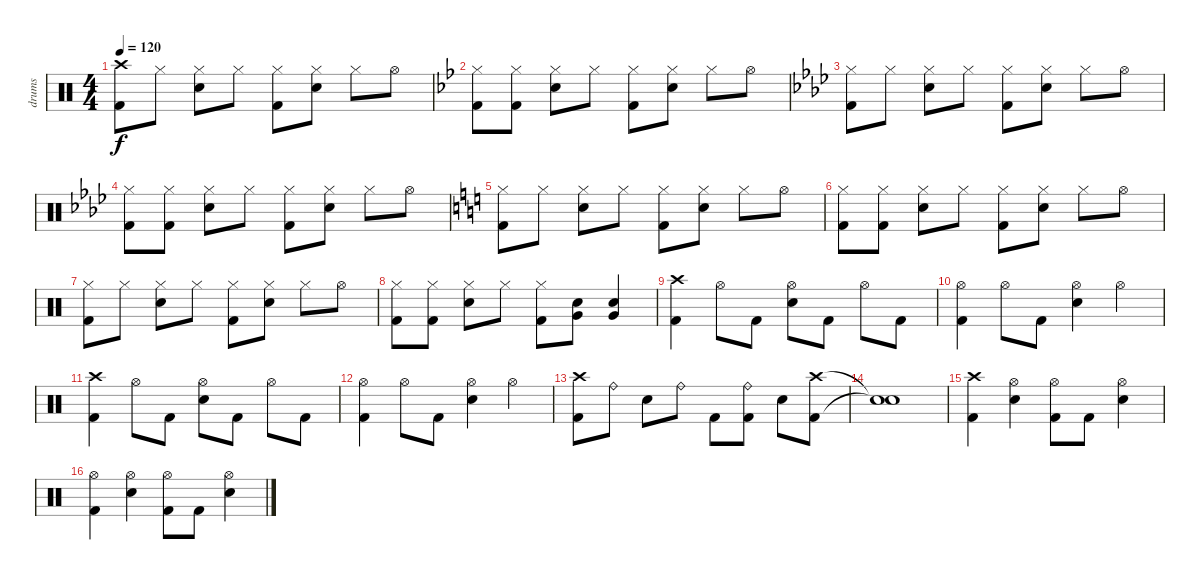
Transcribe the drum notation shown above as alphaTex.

\track ("drums" "drums") {instrument percussion}
\staff {score}
\articulation defaults
\ts (4 4)
\tempo 120
\clef neutral
\ks c
("Crash high (hit)" "Kick (hit) 2").8{dy f} "Hi-Hat (closed)".8 ("Hi-Hat (closed)" "Snare (hit) 2").8 "Hi-Hat (closed)".8 ("Hi-Hat (closed)" "Kick (hit) 2").8 ("Hi-Hat (closed)" "Snare (hit) 2").8 "Hi-Hat (closed)".8 "Hi-Hat (open)".8 |
\ks bb
("Hi-Hat (closed)" "Kick (hit) 2").8 ("Hi-Hat (closed)" "Kick (hit) 2").8 ("Hi-Hat (closed)" "Snare (hit) 2").8 "Hi-Hat (closed)".8 ("Hi-Hat (closed)" "Kick (hit) 2").8 ("Hi-Hat (closed)" "Snare (hit) 2").8 "Hi-Hat (closed)".8 "Hi-Hat (open)".8 |
\ks ab
("Hi-Hat (closed)" "Kick (hit) 2").8 "Hi-Hat (closed)".8 ("Hi-Hat (closed)" "Snare (hit) 2").8 "Hi-Hat (closed)".8 ("Hi-Hat (closed)" "Kick (hit) 2").8 ("Hi-Hat (closed)" "Snare (hit) 2").8 "Hi-Hat (closed)".8 "Hi-Hat (open)".8 |
("Hi-Hat (closed)" "Kick (hit) 2").8 ("Hi-Hat (closed)" "Kick (hit) 2").8 ("Hi-Hat (closed)" "Snare (hit) 2").8 "Hi-Hat (closed)".8 ("Hi-Hat (closed)" "Kick (hit) 2").8 ("Hi-Hat (closed)" "Snare (hit) 2").8 "Hi-Hat (closed)".8 "Hi-Hat (open)".8 |
\ks c
("Hi-Hat (closed)" "Kick (hit) 2").8 "Hi-Hat (closed)".8 ("Hi-Hat (closed)" "Snare (hit) 2").8 "Hi-Hat (closed)".8 ("Hi-Hat (closed)" "Kick (hit) 2").8 ("Hi-Hat (closed)" "Snare (hit) 2").8 "Hi-Hat (closed)".8 "Hi-Hat (open)".8 |
("Hi-Hat (closed)" "Kick (hit) 2").8 ("Hi-Hat (closed)" "Kick (hit) 2").8 ("Hi-Hat (closed)" "Snare (hit) 2").8 "Hi-Hat (closed)".8 ("Hi-Hat (closed)" "Kick (hit) 2").8 ("Hi-Hat (closed)" "Snare (hit) 2").8 "Hi-Hat (closed)".8 "Hi-Hat (open)".8 |
("Hi-Hat (closed)" "Kick (hit) 2").8 "Hi-Hat (closed)".8 ("Hi-Hat (closed)" "Snare (hit) 2").8 "Hi-Hat (closed)".8 ("Hi-Hat (closed)" "Kick (hit) 2").8 ("Hi-Hat (closed)" "Snare (hit) 2").8 "Hi-Hat (closed)".8 "Hi-Hat (open)".8 |
("Hi-Hat (closed)" "Kick (hit) 2").8 ("Hi-Hat (closed)" "Kick (hit) 2").8 ("Hi-Hat (closed)" "Snare (hit) 2").8 "Hi-Hat (closed)".8 ("Hi-Hat (closed)" "Kick (hit) 2").8 ("Very Low Tom (hit)" "Snare (hit) 2").8 ("Very Low Tom (hit)" "Snare (hit) 2").4 |
("Crash high (hit)" "Kick (hit) 2").4 "Hi-Hat (open)".8 "Kick (hit) 2".8 ("Hi-Hat (open)" "Snare (hit) 2").8 "Kick (hit) 2".8 "Hi-Hat (open)".8 "Kick (hit) 2".8 |
("Hi-Hat (open)" "Kick (hit) 2").4 "Hi-Hat (open)".8 "Kick (hit) 2".8 ("Hi-Hat (open)" "Snare (hit) 2").4 "Hi-Hat (open)".4 |
("Crash high (hit)" "Kick (hit) 2").4 "Hi-Hat (open)".8 "Kick (hit) 2".8 ("Hi-Hat (open)" "Snare (hit) 2").8 "Kick (hit) 2".8 "Hi-Hat (open)".8 "Kick (hit) 2".8 |
("Hi-Hat (open)" "Kick (hit) 2").4 "Hi-Hat (open)".8 "Kick (hit) 2".8 ("Hi-Hat (open)" "Snare (hit) 2").4 "Hi-Hat (open)".4 |
("Crash high (hit)" "Kick (hit) 2").8 "Ride (bell)".8 "Snare (hit) 2".8 "Ride (bell)".8 "Kick (hit) 2".8 ("Ride (bell)" "Kick (hit) 2").8 "Snare (hit) 2".8 ("Crash high (hit)" "Kick (hit) 2").8 |
("Snare (hit)"{t} "Snare (hit)"{t}).1 |
("Crash high (hit)" "Kick (hit) 2").4 ("Hi-Hat (open)" "Snare (hit) 2").4 ("Hi-Hat (open)" "Kick (hit) 2").8 "Kick (hit) 2".8 ("Hi-Hat (open)" "Snare (hit) 2").4 |
("Hi-Hat (open)" "Kick (hit) 2").4 ("Hi-Hat (open)" "Snare (hit) 2").4 ("Hi-Hat (open)" "Kick (hit) 2").8 "Kick (hit) 2".8 ("Hi-Hat (open)" "Snare (hit) 2").4
